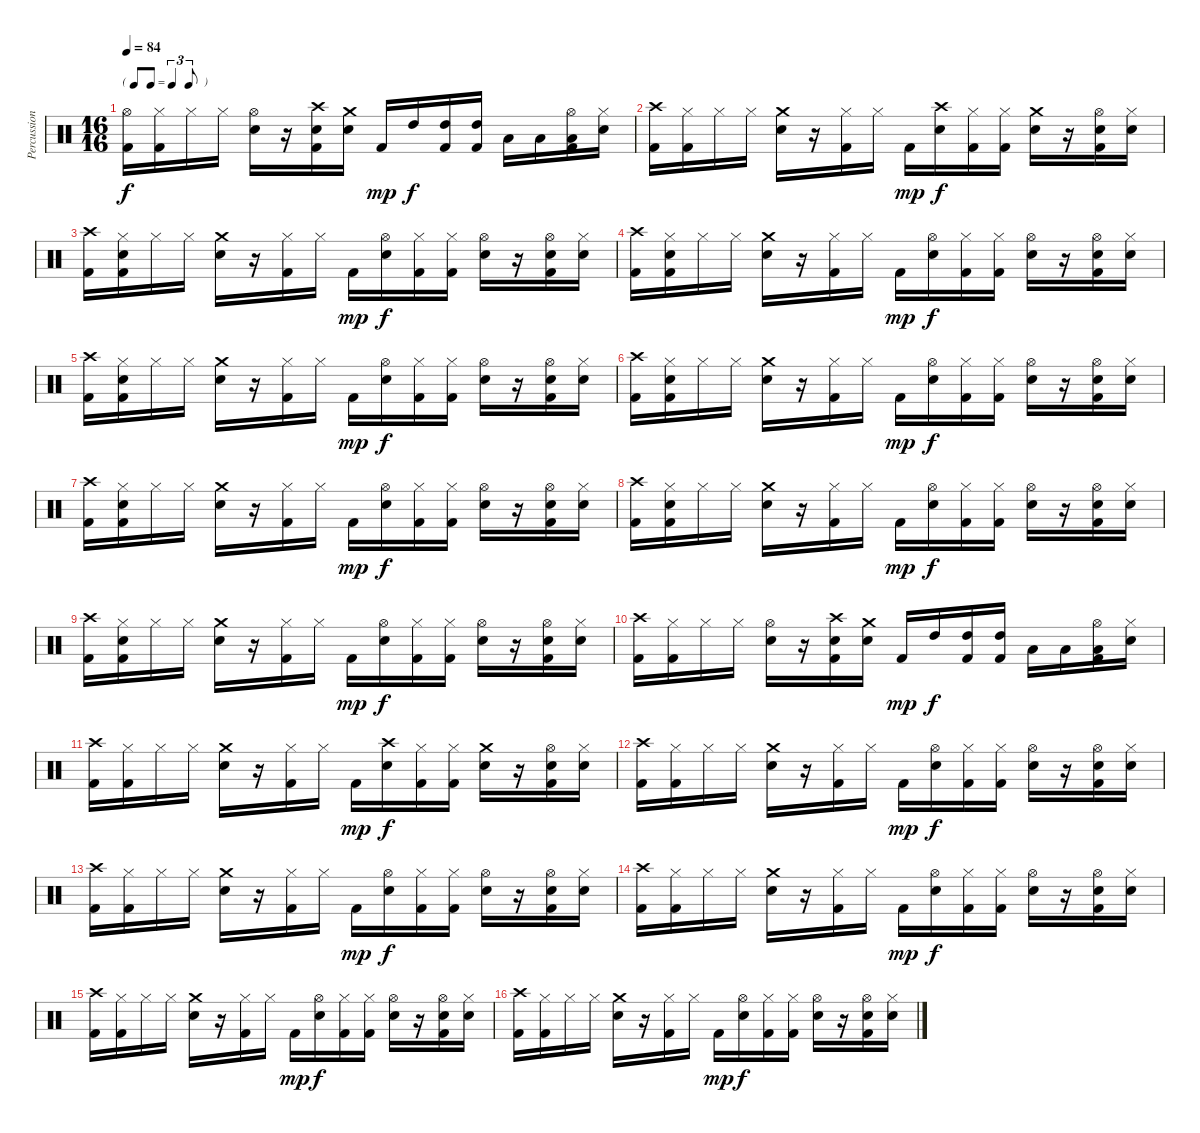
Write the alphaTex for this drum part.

\track ("Percussion" "Percussion") {instrument percussion}
\staff {score}
\articulation defaults
\ts (16 16)
\tf triplet8th
\tempo 84
\clef neutral
\ks c
("Hi-Hat (open)" "Kick (hit) 2").16{dy f} ("Hi-Hat (closed)" "Kick (hit) 2").16 "Hi-Hat (closed)".16 "Hi-Hat (closed)".16 ("Hi-Hat (open)" "Electric Snare (hit)").16 r.16 ("Crash high (hit)" "Electric Snare (hit)" "Kick (hit) 2").16 ("Crash medium (hit)" "Electric Snare (hit)").16 "Kick (hit) 2".16{dy mp} "High Tom (hit)".16{dy f} ("High Tom (hit)" "Kick (hit) 2").16 ("High Tom (hit)" "Kick (hit) 2").16 "Low Tom (hit)".16 "Low Tom (hit)".16 ("Hi-Hat (open)" "Low Tom (hit)" "Kick (hit) 2").16 ("Hi-Hat (closed)" "Electric Snare (hit)").16 |
("Crash high (hit)" "Kick (hit) 2").16 ("Hi-Hat (closed)" "Kick (hit) 2").16 "Hi-Hat (closed)".16 "Hi-Hat (closed)".16 ("Crash medium (hit)" "Electric Snare (hit)").16 r.16 ("Hi-Hat (closed)" "Kick (hit) 2").16 "Hi-Hat (closed)".16 "Kick (hit) 2".16{dy mp} ("Crash high (hit)" "Electric Snare (hit)").16{dy f} ("Hi-Hat (closed)" "Kick (hit) 2").16 ("Hi-Hat (closed)" "Kick (hit) 2").16 ("Crash medium (hit)" "Electric Snare (hit)").16 r.16 ("Hi-Hat (open)" "Electric Snare (hit)" "Kick (hit) 2").16 ("Hi-Hat (closed)" "Electric Snare (hit)").16 |
("Crash high (hit)" "Kick (hit) 2").16 ("Hi-Hat (closed)" "Electric Snare (hit)" "Kick (hit) 2").16 "Hi-Hat (closed)".16 "Hi-Hat (closed)".16 ("Crash medium (hit)" "Electric Snare (hit)").16 r.16 ("Hi-Hat (closed)" "Kick (hit) 2").16 "Hi-Hat (closed)".16 "Kick (hit) 2".16{dy mp} ("Hi-Hat (open)" "Electric Snare (hit)").16{dy f} ("Hi-Hat (closed)" "Kick (hit) 2").16 ("Hi-Hat (closed)" "Kick (hit) 2").16 ("Hi-Hat (open)" "Electric Snare (hit)").16 r.16 ("Hi-Hat (open)" "Electric Snare (hit)" "Kick (hit) 2").16 ("Hi-Hat (closed)" "Electric Snare (hit)").16 |
("Crash high (hit)" "Kick (hit) 2").16 ("Hi-Hat (closed)" "Electric Snare (hit)" "Kick (hit) 2").16 "Hi-Hat (closed)".16 "Hi-Hat (closed)".16 ("Crash medium (hit)" "Electric Snare (hit)").16 r.16 ("Hi-Hat (closed)" "Kick (hit) 2").16 "Hi-Hat (closed)".16 "Kick (hit) 2".16{dy mp} ("Hi-Hat (open)" "Electric Snare (hit)").16{dy f} ("Hi-Hat (closed)" "Kick (hit) 2").16 ("Hi-Hat (closed)" "Kick (hit) 2").16 ("Hi-Hat (open)" "Electric Snare (hit)").16 r.16 ("Hi-Hat (open)" "Electric Snare (hit)" "Kick (hit) 2").16 ("Hi-Hat (closed)" "Electric Snare (hit)").16 |
("Crash high (hit)" "Kick (hit) 2").16 ("Hi-Hat (closed)" "Electric Snare (hit)" "Kick (hit) 2").16 "Hi-Hat (closed)".16 "Hi-Hat (closed)".16 ("Crash medium (hit)" "Electric Snare (hit)").16 r.16 ("Hi-Hat (closed)" "Kick (hit) 2").16 "Hi-Hat (closed)".16 "Kick (hit) 2".16{dy mp} ("Hi-Hat (open)" "Electric Snare (hit)").16{dy f} ("Hi-Hat (closed)" "Kick (hit) 2").16 ("Hi-Hat (closed)" "Kick (hit) 2").16 ("Hi-Hat (open)" "Electric Snare (hit)").16 r.16 ("Hi-Hat (open)" "Electric Snare (hit)" "Kick (hit) 2").16 ("Hi-Hat (closed)" "Electric Snare (hit)").16 |
("Crash high (hit)" "Kick (hit) 2").16 ("Hi-Hat (closed)" "Electric Snare (hit)" "Kick (hit) 2").16 "Hi-Hat (closed)".16 "Hi-Hat (closed)".16 ("Crash medium (hit)" "Electric Snare (hit)").16 r.16 ("Hi-Hat (closed)" "Kick (hit) 2").16 "Hi-Hat (closed)".16 "Kick (hit) 2".16{dy mp} ("Hi-Hat (open)" "Electric Snare (hit)").16{dy f} ("Hi-Hat (closed)" "Kick (hit) 2").16 ("Hi-Hat (closed)" "Kick (hit) 2").16 ("Hi-Hat (open)" "Electric Snare (hit)").16 r.16 ("Hi-Hat (open)" "Electric Snare (hit)" "Kick (hit) 2").16 ("Hi-Hat (closed)" "Electric Snare (hit)").16 |
("Crash high (hit)" "Kick (hit) 2").16 ("Hi-Hat (closed)" "Electric Snare (hit)" "Kick (hit) 2").16 "Hi-Hat (closed)".16 "Hi-Hat (closed)".16 ("Crash medium (hit)" "Electric Snare (hit)").16 r.16 ("Hi-Hat (closed)" "Kick (hit) 2").16 "Hi-Hat (closed)".16 "Kick (hit) 2".16{dy mp} ("Hi-Hat (open)" "Electric Snare (hit)").16{dy f} ("Hi-Hat (closed)" "Kick (hit) 2").16 ("Hi-Hat (closed)" "Kick (hit) 2").16 ("Hi-Hat (open)" "Electric Snare (hit)").16 r.16 ("Hi-Hat (open)" "Electric Snare (hit)" "Kick (hit) 2").16 ("Hi-Hat (closed)" "Electric Snare (hit)").16 |
("Crash high (hit)" "Kick (hit) 2").16 ("Hi-Hat (closed)" "Electric Snare (hit)" "Kick (hit) 2").16 "Hi-Hat (closed)".16 "Hi-Hat (closed)".16 ("Crash medium (hit)" "Electric Snare (hit)").16 r.16 ("Hi-Hat (closed)" "Kick (hit) 2").16 "Hi-Hat (closed)".16 "Kick (hit) 2".16{dy mp} ("Hi-Hat (open)" "Electric Snare (hit)").16{dy f} ("Hi-Hat (closed)" "Kick (hit) 2").16 ("Hi-Hat (closed)" "Kick (hit) 2").16 ("Hi-Hat (open)" "Electric Snare (hit)").16 r.16 ("Hi-Hat (open)" "Electric Snare (hit)" "Kick (hit) 2").16 ("Hi-Hat (closed)" "Electric Snare (hit)").16 |
("Crash high (hit)" "Kick (hit) 2").16 ("Hi-Hat (closed)" "Electric Snare (hit)" "Kick (hit) 2").16 "Hi-Hat (closed)".16 "Hi-Hat (closed)".16 ("Crash medium (hit)" "Electric Snare (hit)").16 r.16 ("Hi-Hat (closed)" "Kick (hit) 2").16 "Hi-Hat (closed)".16 "Kick (hit) 2".16{dy mp} ("Hi-Hat (open)" "Electric Snare (hit)").16{dy f} ("Hi-Hat (closed)" "Kick (hit) 2").16 ("Hi-Hat (closed)" "Kick (hit) 2").16 ("Hi-Hat (open)" "Electric Snare (hit)").16 r.16 ("Hi-Hat (open)" "Electric Snare (hit)" "Kick (hit) 2").16 ("Hi-Hat (closed)" "Electric Snare (hit)").16 |
("Crash high (hit)" "Kick (hit) 2").16 ("Hi-Hat (closed)" "Kick (hit) 2").16 "Hi-Hat (closed)".16 "Hi-Hat (closed)".16 ("Hi-Hat (open)" "Electric Snare (hit)").16 r.16 ("Crash high (hit)" "Electric Snare (hit)" "Kick (hit) 2").16 ("Crash medium (hit)" "Electric Snare (hit)").16 "Kick (hit) 2".16{dy mp} "High Tom (hit)".16{dy f} ("High Tom (hit)" "Kick (hit) 2").16 ("High Tom (hit)" "Kick (hit) 2").16 "Low Tom (hit)".16 "Low Tom (hit)".16 ("Hi-Hat (open)" "Low Tom (hit)" "Kick (hit) 2").16 ("Hi-Hat (closed)" "Electric Snare (hit)").16 |
("Crash high (hit)" "Kick (hit) 2").16 ("Hi-Hat (closed)" "Kick (hit) 2").16 "Hi-Hat (closed)".16 "Hi-Hat (closed)".16 ("Crash medium (hit)" "Electric Snare (hit)").16 r.16 ("Hi-Hat (closed)" "Kick (hit) 2").16 "Hi-Hat (closed)".16 "Kick (hit) 2".16{dy mp} ("Crash high (hit)" "Electric Snare (hit)").16{dy f} ("Hi-Hat (closed)" "Kick (hit) 2").16 ("Hi-Hat (closed)" "Kick (hit) 2").16 ("Crash medium (hit)" "Electric Snare (hit)").16 r.16 ("Hi-Hat (open)" "Electric Snare (hit)" "Kick (hit) 2").16 ("Hi-Hat (closed)" "Electric Snare (hit)").16 |
("Crash high (hit)" "Kick (hit) 2").16 ("Hi-Hat (closed)" "Kick (hit) 2").16 "Hi-Hat (closed)".16 "Hi-Hat (closed)".16 ("Crash medium (hit)" "Electric Snare (hit)").16 r.16 ("Hi-Hat (closed)" "Kick (hit) 2").16 "Hi-Hat (closed)".16 "Kick (hit) 2".16{dy mp} ("Hi-Hat (open)" "Electric Snare (hit)").16{dy f} ("Hi-Hat (closed)" "Kick (hit) 2").16 ("Hi-Hat (closed)" "Kick (hit) 2").16 ("Hi-Hat (open)" "Electric Snare (hit)").16 r.16 ("Hi-Hat (open)" "Electric Snare (hit)" "Kick (hit) 2").16 ("Hi-Hat (closed)" "Electric Snare (hit)").16 |
("Crash high (hit)" "Kick (hit) 2").16 ("Hi-Hat (closed)" "Kick (hit) 2").16 "Hi-Hat (closed)".16 "Hi-Hat (closed)".16 ("Crash medium (hit)" "Electric Snare (hit)").16 r.16 ("Hi-Hat (closed)" "Kick (hit) 2").16 "Hi-Hat (closed)".16 "Kick (hit) 2".16{dy mp} ("Hi-Hat (open)" "Electric Snare (hit)").16{dy f} ("Hi-Hat (closed)" "Kick (hit) 2").16 ("Hi-Hat (closed)" "Kick (hit) 2").16 ("Hi-Hat (open)" "Electric Snare (hit)").16 r.16 ("Hi-Hat (open)" "Electric Snare (hit)" "Kick (hit) 2").16 ("Hi-Hat (closed)" "Electric Snare (hit)").16 |
("Crash high (hit)" "Kick (hit) 2").16 ("Hi-Hat (closed)" "Kick (hit) 2").16 "Hi-Hat (closed)".16 "Hi-Hat (closed)".16 ("Crash medium (hit)" "Electric Snare (hit)").16 r.16 ("Hi-Hat (closed)" "Kick (hit) 2").16 "Hi-Hat (closed)".16 "Kick (hit) 2".16{dy mp} ("Hi-Hat (open)" "Electric Snare (hit)").16{dy f} ("Hi-Hat (closed)" "Kick (hit) 2").16 ("Hi-Hat (closed)" "Kick (hit) 2").16 ("Hi-Hat (open)" "Electric Snare (hit)").16 r.16 ("Hi-Hat (open)" "Electric Snare (hit)" "Kick (hit) 2").16 ("Hi-Hat (closed)" "Electric Snare (hit)").16 |
("Crash high (hit)" "Kick (hit) 2").16 ("Hi-Hat (closed)" "Kick (hit) 2").16 "Hi-Hat (closed)".16 "Hi-Hat (closed)".16 ("Crash medium (hit)" "Electric Snare (hit)").16 r.16 ("Hi-Hat (closed)" "Kick (hit) 2").16 "Hi-Hat (closed)".16 "Kick (hit) 2".16{dy mp} ("Hi-Hat (open)" "Electric Snare (hit)").16{dy f} ("Hi-Hat (closed)" "Kick (hit) 2").16 ("Hi-Hat (closed)" "Kick (hit) 2").16 ("Hi-Hat (open)" "Electric Snare (hit)").16 r.16 ("Hi-Hat (open)" "Electric Snare (hit)" "Kick (hit) 2").16 ("Hi-Hat (closed)" "Electric Snare (hit)").16 |
("Crash high (hit)" "Kick (hit) 2").16 ("Hi-Hat (closed)" "Kick (hit) 2").16 "Hi-Hat (closed)".16 "Hi-Hat (closed)".16 ("Crash medium (hit)" "Electric Snare (hit)").16 r.16 ("Hi-Hat (closed)" "Kick (hit) 2").16 "Hi-Hat (closed)".16 "Kick (hit) 2".16{dy mp} ("Hi-Hat (open)" "Electric Snare (hit)").16{dy f} ("Hi-Hat (closed)" "Kick (hit) 2").16 ("Hi-Hat (closed)" "Kick (hit) 2").16 ("Hi-Hat (open)" "Electric Snare (hit)").16 r.16 ("Hi-Hat (open)" "Electric Snare (hit)" "Kick (hit) 2").16 ("Hi-Hat (closed)" "Electric Snare (hit)").16
